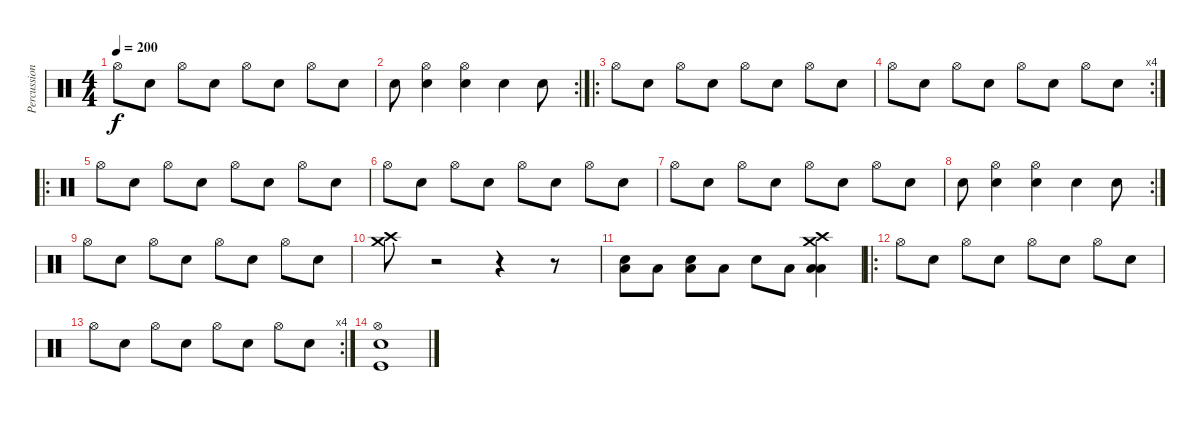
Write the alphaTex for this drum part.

\track ("Percussion" "Percussion") {instrument percussion}
\staff {score}
\articulation defaults
\ts (4 4)
\tempo 200
\clef neutral
\ks c "Hi-Hat (open)".8{dy f} "Snare (hit) 2".8 "Hi-Hat (open)".8 "Snare (hit) 2".8 "Hi-Hat (open)".8 "Snare (hit) 2".8 "Hi-Hat (open)".8 "Snare (hit) 2".8
|
\rc 2 "Electric Snare (hit)".8
("Hi-Hat (open)" "Snare (hit) 2").4 ("Hi-Hat (open)" "Snare (hit) 2").4 "Snare (hit) 2".4 "Snare (hit) 2".8 |
\ro "Hi-Hat (open)".8 "Snare (hit) 2".8 "Hi-Hat (open)".8 "Snare (hit) 2".8 "Hi-Hat (open)".8 "Snare (hit) 2".8 "Hi-Hat (open)".8 "Snare (hit) 2".8
|
\rc 4 "Hi-Hat (open)".8 "Snare (hit) 2".8 "Hi-Hat (open)".8 "Snare (hit) 2".8 "Hi-Hat (open)".8 "Snare (hit) 2".8 "Hi-Hat (open)".8 "Snare (hit) 2".8
|
\ro "Hi-Hat (open)".8 "Snare (hit) 2".8 "Hi-Hat (open)".8 "Snare (hit) 2".8 "Hi-Hat (open)".8 "Snare (hit) 2".8 "Hi-Hat (open)".8 "Snare (hit) 2".8
|
"Hi-Hat (open)".8 "Snare (hit) 2".8 "Hi-Hat (open)".8 "Snare (hit) 2".8 "Hi-Hat (open)".8 "Snare (hit) 2".8 "Hi-Hat (open)".8 "Snare (hit) 2".8 |
"Hi-Hat (open)".8 "Snare (hit) 2".8 "Hi-Hat (open)".8 "Snare (hit) 2".8 "Hi-Hat (open)".8 "Snare (hit) 2".8 "Hi-Hat (open)".8 "Snare (hit) 2".8 |
\rc 2 "Electric Snare (hit)".8
("Hi-Hat (open)" "Snare (hit) 2").4 ("Hi-Hat (open)" "Snare (hit) 2").4 "Snare (hit) 2".4 "Snare (hit) 2".8 |
"Hi-Hat (open)".8 "Snare (hit) 2".8 "Hi-Hat (open)".8 "Snare (hit) 2".8 "Hi-Hat (open)".8 "Snare (hit) 2".8 "Hi-Hat (open)".8 "Snare (hit) 2".8 |
("Crash medium (hit)" "Crash high (hit)").8 r.2 r.4 r.8 |
("Snare (hit) 2" "Low Tom (hit)").8 "Low Tom (hit)".8 ("Electric Snare (hit)" "Low Tom (hit)").8 "Low Tom (hit)".8 "Snare (hit) 2".8 "Low Tom (hit)".8 ("Crash high (hit)" "Low Floor Tom (hit)" "Low Tom (hit)" "Crash medium (hit)").4 |
\ro "Hi-Hat (open)".8 "Snare (hit) 2".8 "Hi-Hat (open)".8 "Snare (hit) 2".8 "Hi-Hat (open)".8 "Snare (hit) 2".8 "Hi-Hat (open)".8 "Snare (hit) 2".8
|
\rc 4 "Hi-Hat (open)".8 "Snare (hit) 2".8 "Hi-Hat (open)".8 "Snare (hit) 2".8 "Hi-Hat (open)".8 "Snare (hit) 2".8 "Hi-Hat (open)".8 "Snare (hit) 2".8
|
("Hi-Hat (open)" "Snare (hit) 2" "Kick (hit)").1
